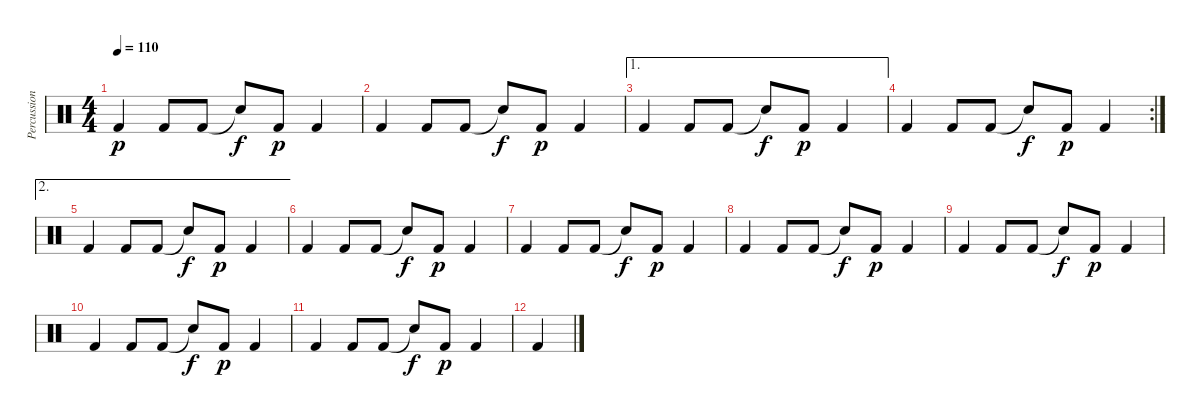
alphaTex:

\track ("Percussions" "Percussion") {instrument percussion}
\staff {score}
\articulation defaults
\ts (4 4)
\tempo 110
\clef neutral
\ks c "Kick (hit) 2".4{dy p} "Kick (hit) 2".8 "Kick (hit) 2".8 "Snare (hit)"{t}.8{dy f} "Kick (hit) 2".8{dy p} "Kick (hit) 2".4
|
"Kick (hit) 2".4 "Kick (hit) 2".8 "Kick (hit) 2".8 "Snare (hit)"{t}.8{dy f} "Kick (hit) 2".8{dy p} "Kick (hit) 2".4 |
\ae 1 "Kick (hit) 2".4 "Kick (hit) 2".8 "Kick (hit) 2".8 "Snare (hit)"{t}.8{dy f} "Kick (hit) 2".8{dy p} "Kick (hit) 2".4
|
\rc 2 "Kick (hit) 2".4 "Kick (hit) 2".8 "Kick (hit) 2".8 "Snare (hit)"{t}.8{dy f} "Kick (hit) 2".8{dy p} "Kick (hit) 2".4
|
\ae 2 "Kick (hit) 2".4 "Kick (hit) 2".8 "Kick (hit) 2".8 "Snare (hit)"{t}.8{dy f} "Kick (hit) 2".8{dy p} "Kick (hit) 2".4
|
"Kick (hit) 2".4 "Kick (hit) 2".8 "Kick (hit) 2".8 "Snare (hit)"{t}.8{dy f} "Kick (hit) 2".8{dy p} "Kick (hit) 2".4 |
"Kick (hit) 2".4 "Kick (hit) 2".8 "Kick (hit) 2".8 "Snare (hit)"{t}.8{dy f} "Kick (hit) 2".8{dy p} "Kick (hit) 2".4 |
"Kick (hit) 2".4 "Kick (hit) 2".8 "Kick (hit) 2".8 "Snare (hit)"{t}.8{dy f} "Kick (hit) 2".8{dy p} "Kick (hit) 2".4 |
"Kick (hit) 2".4 "Kick (hit) 2".8 "Kick (hit) 2".8 "Snare (hit)"{t}.8{dy f} "Kick (hit) 2".8{dy p} "Kick (hit) 2".4 |
"Kick (hit) 2".4 "Kick (hit) 2".8 "Kick (hit) 2".8 "Snare (hit)"{t}.8{dy f} "Kick (hit) 2".8{dy p} "Kick (hit) 2".4 |
"Kick (hit) 2".4 "Kick (hit) 2".8 "Kick (hit) 2".8 "Snare (hit)"{t}.8{dy f} "Kick (hit) 2".8{dy p} "Kick (hit) 2".4 |
"Kick (hit) 2".4
